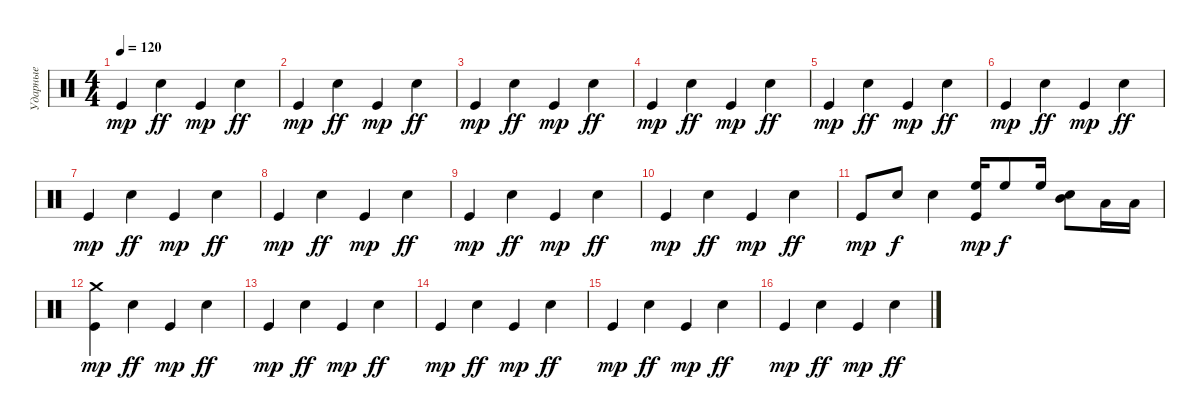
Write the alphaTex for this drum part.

\track ("Ударные" "Ударные") {instrument percussion}
\staff {score}
\articulation defaults
\ts (4 4)
\tempo 120
\clef neutral
\ks c "Kick (hit)".4{dy mp} "Snare (hit) 2".4{dy ff} "Kick (hit)".4{dy mp} "Snare (hit) 2".4{dy ff}
|
"Kick (hit)".4{dy mp} "Snare (hit) 2".4{dy ff} "Kick (hit)".4{dy mp} "Snare (hit) 2".4{dy ff} |
"Kick (hit)".4{dy mp} "Snare (hit) 2".4{dy ff} "Kick (hit)".4{dy mp} "Snare (hit) 2".4{dy ff} |
"Kick (hit)".4{dy mp} "Snare (hit) 2".4{dy ff} "Kick (hit)".4{dy mp} "Snare (hit) 2".4{dy ff} |
"Kick (hit)".4{dy mp} "Snare (hit) 2".4{dy ff} "Kick (hit)".4{dy mp} "Snare (hit) 2".4{dy ff} |
"Kick (hit)".4{dy mp} "Snare (hit) 2".4{dy ff} "Kick (hit)".4{dy mp} "Snare (hit) 2".4{dy ff} |
"Kick (hit)".4{dy mp} "Snare (hit) 2".4{dy ff} "Kick (hit)".4{dy mp} "Snare (hit) 2".4{dy ff} |
"Kick (hit)".4{dy mp} "Snare (hit) 2".4{dy ff} "Kick (hit)".4{dy mp} "Snare (hit) 2".4{dy ff} |
"Kick (hit)".4{dy mp} "Snare (hit) 2".4{dy ff} "Kick (hit)".4{dy mp} "Snare (hit) 2".4{dy ff} |
"Kick (hit)".4{dy mp} "Snare (hit) 2".4{dy ff} "Kick (hit)".4{dy mp} "Snare (hit) 2".4{dy ff} |
"Kick (hit)".8{dy mp} "Snare (hit) 2".8{dy f} "Snare (hit) 2".4 ("High Floor Tom (hit)" "Kick (hit)").16{dy mp} "High Floor Tom (hit)".8{dy f} "High Floor Tom (hit)".16 ("Mid Tom (hit)" "Snare (hit) 2").8 "Low Tom (hit)".16 "Low Tom (hit)".16 |
("Kick (hit)" "Crash medium (hit)").4{dy mp} "Snare (hit) 2".4{dy ff} "Kick (hit)".4{dy mp} "Snare (hit) 2".4{dy ff} |
"Kick (hit)".4{dy mp} "Snare (hit) 2".4{dy ff} "Kick (hit)".4{dy mp} "Snare (hit) 2".4{dy ff} |
"Kick (hit)".4{dy mp} "Snare (hit) 2".4{dy ff} "Kick (hit)".4{dy mp} "Snare (hit) 2".4{dy ff} |
"Kick (hit)".4{dy mp} "Snare (hit) 2".4{dy ff} "Kick (hit)".4{dy mp} "Snare (hit) 2".4{dy ff} |
"Kick (hit)".4{dy mp} "Snare (hit) 2".4{dy ff} "Kick (hit)".4{dy mp} "Snare (hit) 2".4{dy ff}
